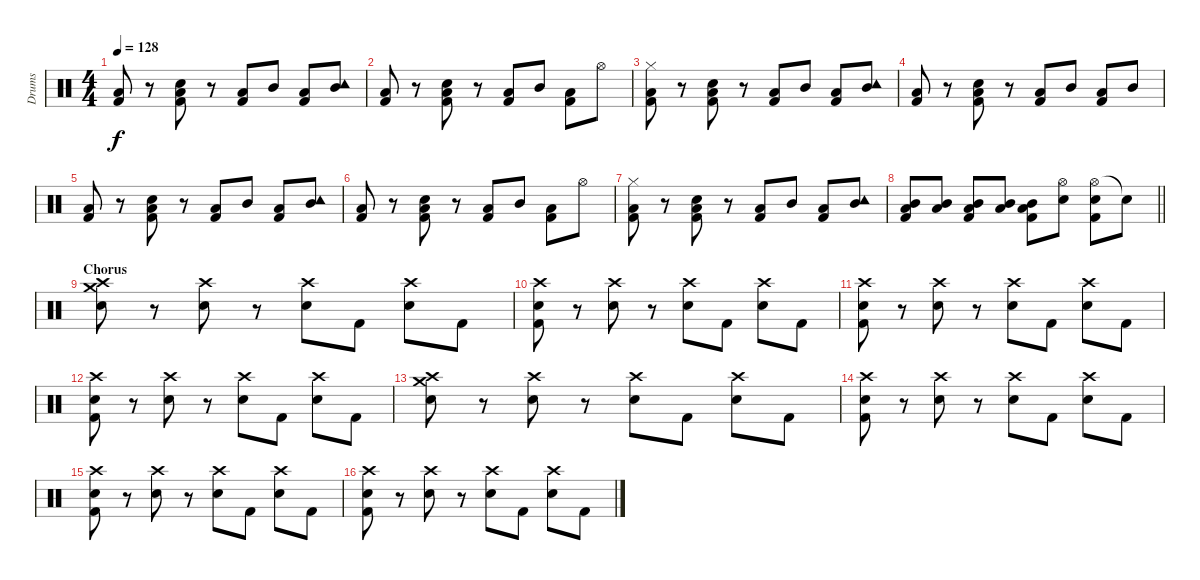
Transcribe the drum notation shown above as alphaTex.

\track ("Drums" "Drums") {instrument percussion}
\staff {score}
\articulation defaults
\ts (4 4)
\tempo 128
\clef neutral
\ks c
("Low Tom (hit)" "Kick (hit) 2").8{dy f} r.8 ("Snare (hit) 2" "Low Tom (hit)" "Kick (hit) 2").8 r.8 ("Low Tom (hit)" "Kick (hit) 2").8 "Mid Tom (hit)".8 ("Low Tom (hit)" "Kick (hit) 2").8 ("Tambourine (hit)" "Mid Tom (hit)").8 |
("Low Tom (hit)" "Kick (hit) 2").8 r.8 ("Snare (hit) 2" "Low Tom (hit)" "Kick (hit) 2").8 r.8 ("Low Tom (hit)" "Kick (hit) 2").8 "Mid Tom (hit)".8 ("Low Tom (hit)" "Kick (hit) 2").8 "Hi-Hat (open)".8 |
("Hi-Hat (closed)" "Low Tom (hit)" "Kick (hit) 2").8 r.8 ("Snare (hit) 2" "Low Tom (hit)" "Kick (hit) 2").8 r.8 ("Low Tom (hit)" "Kick (hit) 2").8 "Mid Tom (hit)".8 ("Low Tom (hit)" "Kick (hit) 2").8 ("Tambourine (hit)" "Mid Tom (hit)").8 |
("Low Tom (hit)" "Kick (hit) 2").8 r.8 ("Snare (hit) 2" "Low Tom (hit)" "Kick (hit) 2").8 r.8 ("Low Tom (hit)" "Kick (hit) 2").8 "Mid Tom (hit)".8 ("Low Tom (hit)" "Kick (hit) 2").8 "Mid Tom (hit)".8 |
("Low Tom (hit)" "Kick (hit) 2").8 r.8 ("Snare (hit) 2" "Low Tom (hit)" "Kick (hit) 2").8 r.8 ("Low Tom (hit)" "Kick (hit) 2").8 "Mid Tom (hit)".8 ("Low Tom (hit)" "Kick (hit) 2").8 ("Tambourine (hit)" "Mid Tom (hit)").8 |
("Low Tom (hit)" "Kick (hit) 2").8 r.8 ("Snare (hit) 2" "Low Tom (hit)" "Kick (hit) 2").8 r.8 ("Low Tom (hit)" "Kick (hit) 2").8 "Mid Tom (hit)".8 ("Low Tom (hit)" "Kick (hit) 2").8 "Hi-Hat (open)".8 |
("Hi-Hat (closed)" "Low Tom (hit)" "Kick (hit) 2").8 r.8 ("Snare (hit) 2" "Low Tom (hit)" "Kick (hit) 2").8 r.8 ("Low Tom (hit)" "Kick (hit) 2").8 "Mid Tom (hit)".8 ("Low Tom (hit)" "Kick (hit) 2").8 ("Tambourine (hit)" "Mid Tom (hit)").8 |
\barLineRight lightlight
("Mid Tom (hit)" "Low Tom (hit)" "Kick (hit) 2").8 ("Mid Tom (hit)" "Low Tom (hit)").8 ("Mid Tom (hit)" "Low Tom (hit)" "Kick (hit) 2").8 ("Mid Tom (hit)" "Low Tom (hit)").8 ("Mid Tom (hit)" "Low Tom (hit)" "Kick (hit) 2").8 ("Hi-Hat (open)" "Snare (hit) 2").8 ("Hi-Hat (open)" "Snare (hit) 2" "Kick (hit) 2").8 "Snare (hit)"{t}.8 |
\section ("" "Chorus")
("Crash high (hit)" "Crash medium (hit)" "Snare (hit) 2").8{volume 13} r.8 ("Crash high (hit)" "Snare (hit) 2").8 r.8 ("Crash high (hit)" "Snare (hit) 2").8 "Kick (hit) 2".8 ("Crash high (hit)" "Snare (hit) 2").8 "Kick (hit) 2".8 |
("Crash high (hit)" "Snare (hit) 2" "Kick (hit) 2").8 r.8 ("Crash high (hit)" "Snare (hit) 2").8 r.8 ("Crash high (hit)" "Snare (hit) 2").8 "Kick (hit) 2".8 ("Crash high (hit)" "Snare (hit) 2").8 "Kick (hit) 2".8 |
("Crash high (hit)" "Snare (hit) 2" "Kick (hit) 2").8 r.8 ("Crash high (hit)" "Snare (hit) 2").8 r.8 ("Crash high (hit)" "Snare (hit) 2").8 "Kick (hit) 2".8 ("Crash high (hit)" "Snare (hit) 2").8 "Kick (hit) 2".8 |
("Crash high (hit)" "Snare (hit) 2" "Kick (hit) 2").8 r.8 ("Crash high (hit)" "Snare (hit) 2").8 r.8 ("Crash high (hit)" "Snare (hit) 2").8 "Kick (hit) 2".8 ("Crash high (hit)" "Snare (hit) 2").8 "Kick (hit) 2".8 |
("Crash high (hit)" "Crash medium (hit)" "Snare (hit) 2").8 r.8 ("Crash high (hit)" "Snare (hit) 2").8 r.8 ("Crash high (hit)" "Snare (hit) 2").8 "Kick (hit) 2".8 ("Crash high (hit)" "Snare (hit) 2").8 "Kick (hit) 2".8 |
("Crash high (hit)" "Snare (hit) 2" "Kick (hit) 2").8 r.8 ("Crash high (hit)" "Snare (hit) 2").8 r.8 ("Crash high (hit)" "Snare (hit) 2").8 "Kick (hit) 2".8 ("Crash high (hit)" "Snare (hit) 2").8 "Kick (hit) 2".8 |
("Crash high (hit)" "Snare (hit) 2" "Kick (hit) 2").8 r.8 ("Crash high (hit)" "Snare (hit) 2").8 r.8 ("Crash high (hit)" "Snare (hit) 2").8 "Kick (hit) 2".8 ("Crash high (hit)" "Snare (hit) 2").8 "Kick (hit) 2".8 |
("Crash high (hit)" "Snare (hit) 2" "Kick (hit) 2").8 r.8 ("Crash high (hit)" "Snare (hit) 2").8 r.8 ("Crash high (hit)" "Snare (hit) 2").8 "Kick (hit) 2".8 ("Crash high (hit)" "Snare (hit) 2").8 "Kick (hit) 2".8
